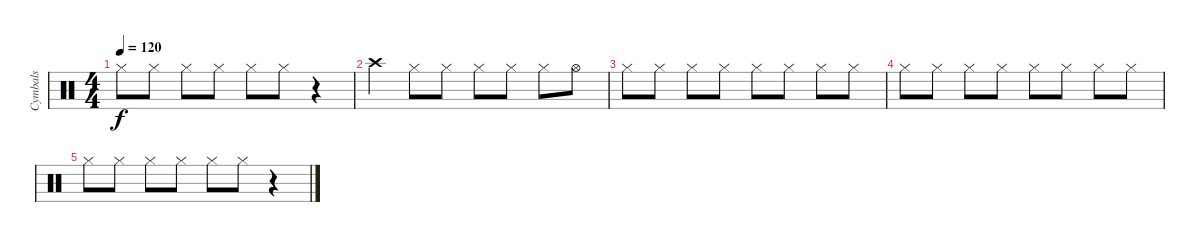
\track ("Cymbals" "Cymbals") {instrument percussion}
\staff {score}
\articulation defaults
\ts (4 4)
\tempo 120
\clef neutral
\ks c "Hi-Hat (closed)".8{dy f} "Hi-Hat (closed)".8 "Hi-Hat (closed)".8 "Hi-Hat (closed)".8 "Hi-Hat (closed)".8 "Hi-Hat (closed)".8
r.4 |
"Crash high (hit)".4 "Hi-Hat (closed)".8 "Hi-Hat (closed)".8 "Hi-Hat (closed)".8 "Hi-Hat (closed)".8 "Hi-Hat (closed)".8 "Hi-Hat (open)".8 |
"Hi-Hat (closed)".8 "Hi-Hat (closed)".8 "Hi-Hat (closed)".8 "Hi-Hat (closed)".8 "Hi-Hat (closed)".8 "Hi-Hat (closed)".8 "Hi-Hat (closed)".8 "Hi-Hat (closed)".8 |
"Hi-Hat (closed)".8 "Hi-Hat (closed)".8 "Hi-Hat (closed)".8 "Hi-Hat (closed)".8 "Hi-Hat (closed)".8 "Hi-Hat (closed)".8 "Hi-Hat (closed)".8 "Hi-Hat (closed)".8 |
"Hi-Hat (closed)".8 "Hi-Hat (closed)".8 "Hi-Hat (closed)".8 "Hi-Hat (closed)".8 "Hi-Hat (closed)".8 "Hi-Hat (closed)".8 r.4
